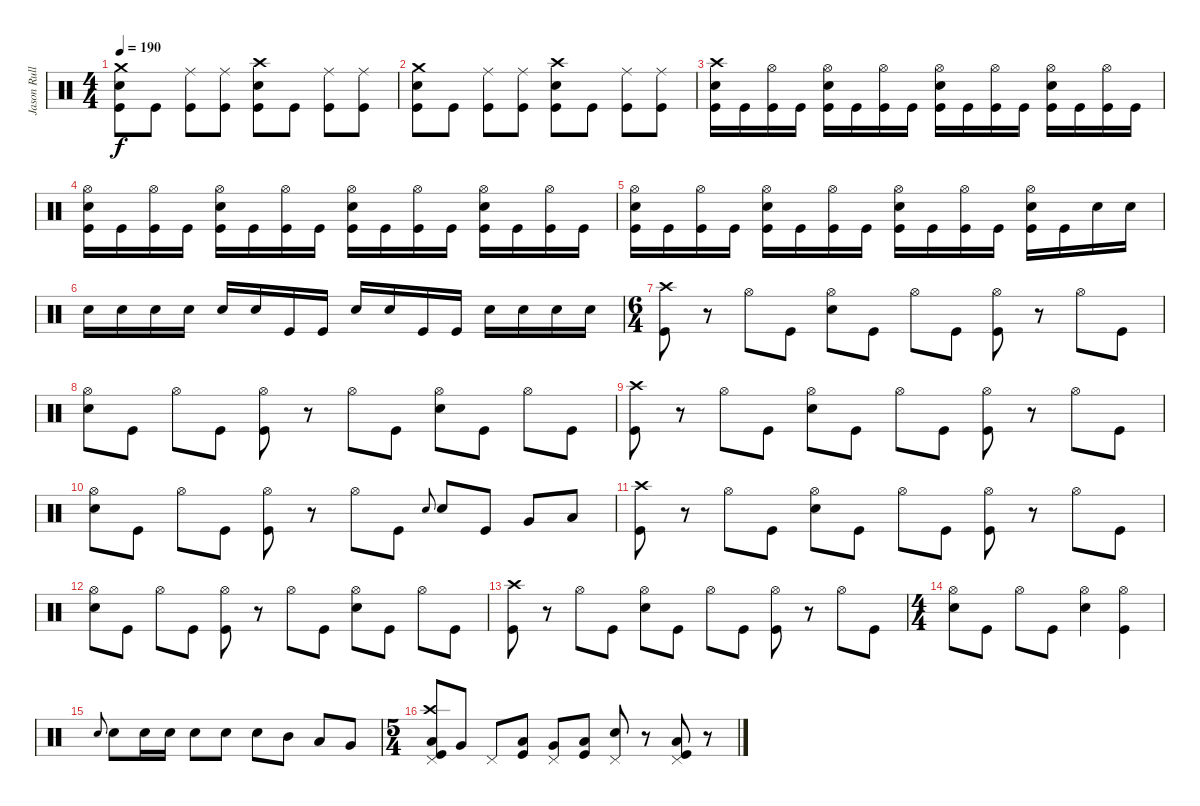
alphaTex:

\track ("Jason Rullo - Drums and Percussion" "Jason Rull") {instrument percussion}
\staff {score}
\articulation defaults
\ts (4 4)
\tempo 190
\clef neutral
\ks c
("Crash medium (hit)" "Snare (hit) 2" "Kick (hit)").8{dy f} "Kick (hit)".8 ("Ride (middle)" "Kick (hit)").8 ("Ride (middle)" "Kick (hit)").8 ("Crash high (hit)" "Snare (hit) 2" "Kick (hit)").8 "Kick (hit)".8 ("Ride (middle)" "Kick (hit)").8 ("Ride (middle)" "Kick (hit)").8 |
("Crash medium (hit)" "Snare (hit) 2" "Kick (hit)").8 "Kick (hit)".8 ("Ride (middle)" "Kick (hit)").8 ("Ride (middle)" "Kick (hit)").8 ("Crash high (hit)" "Snare (hit) 2" "Kick (hit)").8 "Kick (hit)".8 ("Ride (middle)" "Kick (hit)").8 ("Ride (middle)" "Kick (hit)").8 |
("Crash high (hit)" "Kick (hit)" "Snare (hit) 2").16 "Kick (hit)".16 ("Kick (hit)" "Hi-Hat (open)").16 "Kick (hit)".16 ("Kick (hit)" "Hi-Hat (open)" "Snare (hit) 2").16 "Kick (hit)".16 ("Kick (hit)" "Hi-Hat (open)").16 "Kick (hit)".16 ("Kick (hit)" "Hi-Hat (open)" "Snare (hit) 2").16 "Kick (hit)".16 ("Kick (hit)" "Hi-Hat (open)").16 "Kick (hit)".16 ("Kick (hit)" "Hi-Hat (open)" "Snare (hit) 2").16 "Kick (hit)".16 ("Kick (hit)" "Hi-Hat (open)").16 "Kick (hit)".16 |
("Hi-Hat (open)" "Kick (hit)" "Snare (hit) 2").16 "Kick (hit)".16 ("Kick (hit)" "Hi-Hat (open)").16 "Kick (hit)".16 ("Kick (hit)" "Hi-Hat (open)" "Snare (hit) 2").16 "Kick (hit)".16 ("Kick (hit)" "Hi-Hat (open)").16 "Kick (hit)".16 ("Kick (hit)" "Hi-Hat (open)" "Snare (hit) 2").16 "Kick (hit)".16 ("Kick (hit)" "Hi-Hat (open)").16 "Kick (hit)".16 ("Kick (hit)" "Hi-Hat (open)" "Snare (hit) 2").16 "Kick (hit)".16 ("Kick (hit)" "Hi-Hat (open)").16 "Kick (hit)".16 |
("Hi-Hat (open)" "Kick (hit)" "Snare (hit) 2").16 "Kick (hit)".16 ("Kick (hit)" "Hi-Hat (open)").16 "Kick (hit)".16 ("Kick (hit)" "Hi-Hat (open)" "Snare (hit) 2").16 "Kick (hit)".16 ("Kick (hit)" "Hi-Hat (open)").16 "Kick (hit)".16 ("Kick (hit)" "Hi-Hat (open)" "Snare (hit) 2").16 "Kick (hit)".16 ("Kick (hit)" "Hi-Hat (open)").16 "Kick (hit)".16 ("Kick (hit)" "Hi-Hat (open)" "Snare (hit) 2").16 "Kick (hit)".16 "Snare (hit) 2".16 "Snare (hit) 2".16 |
"Snare (hit) 2".16 "Snare (hit) 2".16 "Snare (hit) 2".16 "Snare (hit) 2".16 "Snare (hit) 2".16 "Snare (hit) 2".16 "Kick (hit)".16 "Kick (hit)".16 "Snare (hit) 2".16 "Snare (hit) 2".16 "Kick (hit)".16 "Kick (hit)".16 "Snare (hit) 2".16 "Snare (hit) 2".16 "Snare (hit) 2".16 "Snare (hit) 2".16 |
\ts (6 4)
("Kick (hit)" "Crash high (hit)").8 r.8 "Hi-Hat (open)".8 "Kick (hit)".8 ("Snare (hit) 2" "Hi-Hat (open)").8 "Kick (hit)".8 "Hi-Hat (open)".8 "Kick (hit)".8 ("Kick (hit)" "Hi-Hat (open)").8 r.8 "Hi-Hat (open)".8 "Kick (hit)".8 |
("Snare (hit) 2" "Hi-Hat (open)").8 "Kick (hit)".8 "Hi-Hat (open)".8 "Kick (hit)".8 ("Kick (hit)" "Hi-Hat (open)").8 r.8 "Hi-Hat (open)".8 "Kick (hit)".8 ("Snare (hit) 2" "Hi-Hat (open)").8 "Kick (hit)".8 "Hi-Hat (open)".8 "Kick (hit)".8 |
("Kick (hit)" "Crash high (hit)").8 r.8 "Hi-Hat (open)".8 "Kick (hit)".8 ("Snare (hit) 2" "Hi-Hat (open)").8 "Kick (hit)".8 "Hi-Hat (open)".8 "Kick (hit)".8 ("Kick (hit)" "Hi-Hat (open)").8 r.8 "Hi-Hat (open)".8 "Kick (hit)".8 |
("Snare (hit) 2" "Hi-Hat (open)").8 "Kick (hit)".8 "Hi-Hat (open)".8 "Kick (hit)".8 ("Kick (hit)" "Hi-Hat (open)").8 r.8 "Hi-Hat (open)".8 "Kick (hit)".8 "Snare (hit) 2".8{gr onbeat} "Snare (hit) 2".8 "Kick (hit)".8 "Very Low Tom (hit)".8 "Low Floor Tom (hit)".8 |
("Kick (hit)" "Crash high (hit)").8 r.8 "Hi-Hat (open)".8 "Kick (hit)".8 ("Snare (hit) 2" "Hi-Hat (open)").8 "Kick (hit)".8 "Hi-Hat (open)".8 "Kick (hit)".8 ("Kick (hit)" "Hi-Hat (open)").8 r.8 "Hi-Hat (open)".8 "Kick (hit)".8 |
("Snare (hit) 2" "Hi-Hat (open)").8 "Kick (hit)".8 "Hi-Hat (open)".8 "Kick (hit)".8 ("Kick (hit)" "Hi-Hat (open)").8 r.8 "Hi-Hat (open)".8 "Kick (hit)".8 ("Snare (hit) 2" "Hi-Hat (open)").8 "Kick (hit)".8 "Hi-Hat (open)".8 "Kick (hit)".8 |
("Kick (hit)" "Crash high (hit)").8 r.8 "Hi-Hat (open)".8 "Kick (hit)".8 ("Snare (hit) 2" "Hi-Hat (open)").8 "Kick (hit)".8 "Hi-Hat (open)".8 "Kick (hit)".8 ("Kick (hit)" "Hi-Hat (open)").8 r.8 "Hi-Hat (open)".8 "Kick (hit)".8 |
\ts (4 4)
("Snare (hit) 2" "Hi-Hat (open)").8 "Kick (hit)".8 "Hi-Hat (open)".8 "Kick (hit)".8 ("Snare (hit) 2" "Hi-Hat (open)").4 ("Kick (hit)" "Hi-Hat (open)").4 |
"Snare (hit) 2".8{gr onbeat} "Snare (hit) 2".8 "Snare (hit) 2".16 "Snare (hit) 2".16 "Snare (hit) 2".8 "Snare (hit) 2".8 "Snare (hit) 2".8 "Mid Tom (hit)".8 "Low Tom (hit)".8 "Very Low Tom (hit)".8 |
\ts (5 4)
("Kick (hit)" "Pedal Hi-Hat (hit)" "Crash high (hit)" "Low Floor Tom (hit)").8 "Very Low Tom (hit)".8 "Pedal Hi-Hat (hit)".8 ("Low Floor Tom (hit)" "Kick (hit)").8 ("Pedal Hi-Hat (hit)" "Very Low Tom (hit)").8 ("Kick (hit)" "Low Floor Tom (hit)").8 ("Pedal Hi-Hat (hit)" "Snare (hit) 2").8 r.8 ("Kick (hit)" "Pedal Hi-Hat (hit)" "Low Floor Tom (hit)").8 r.8
